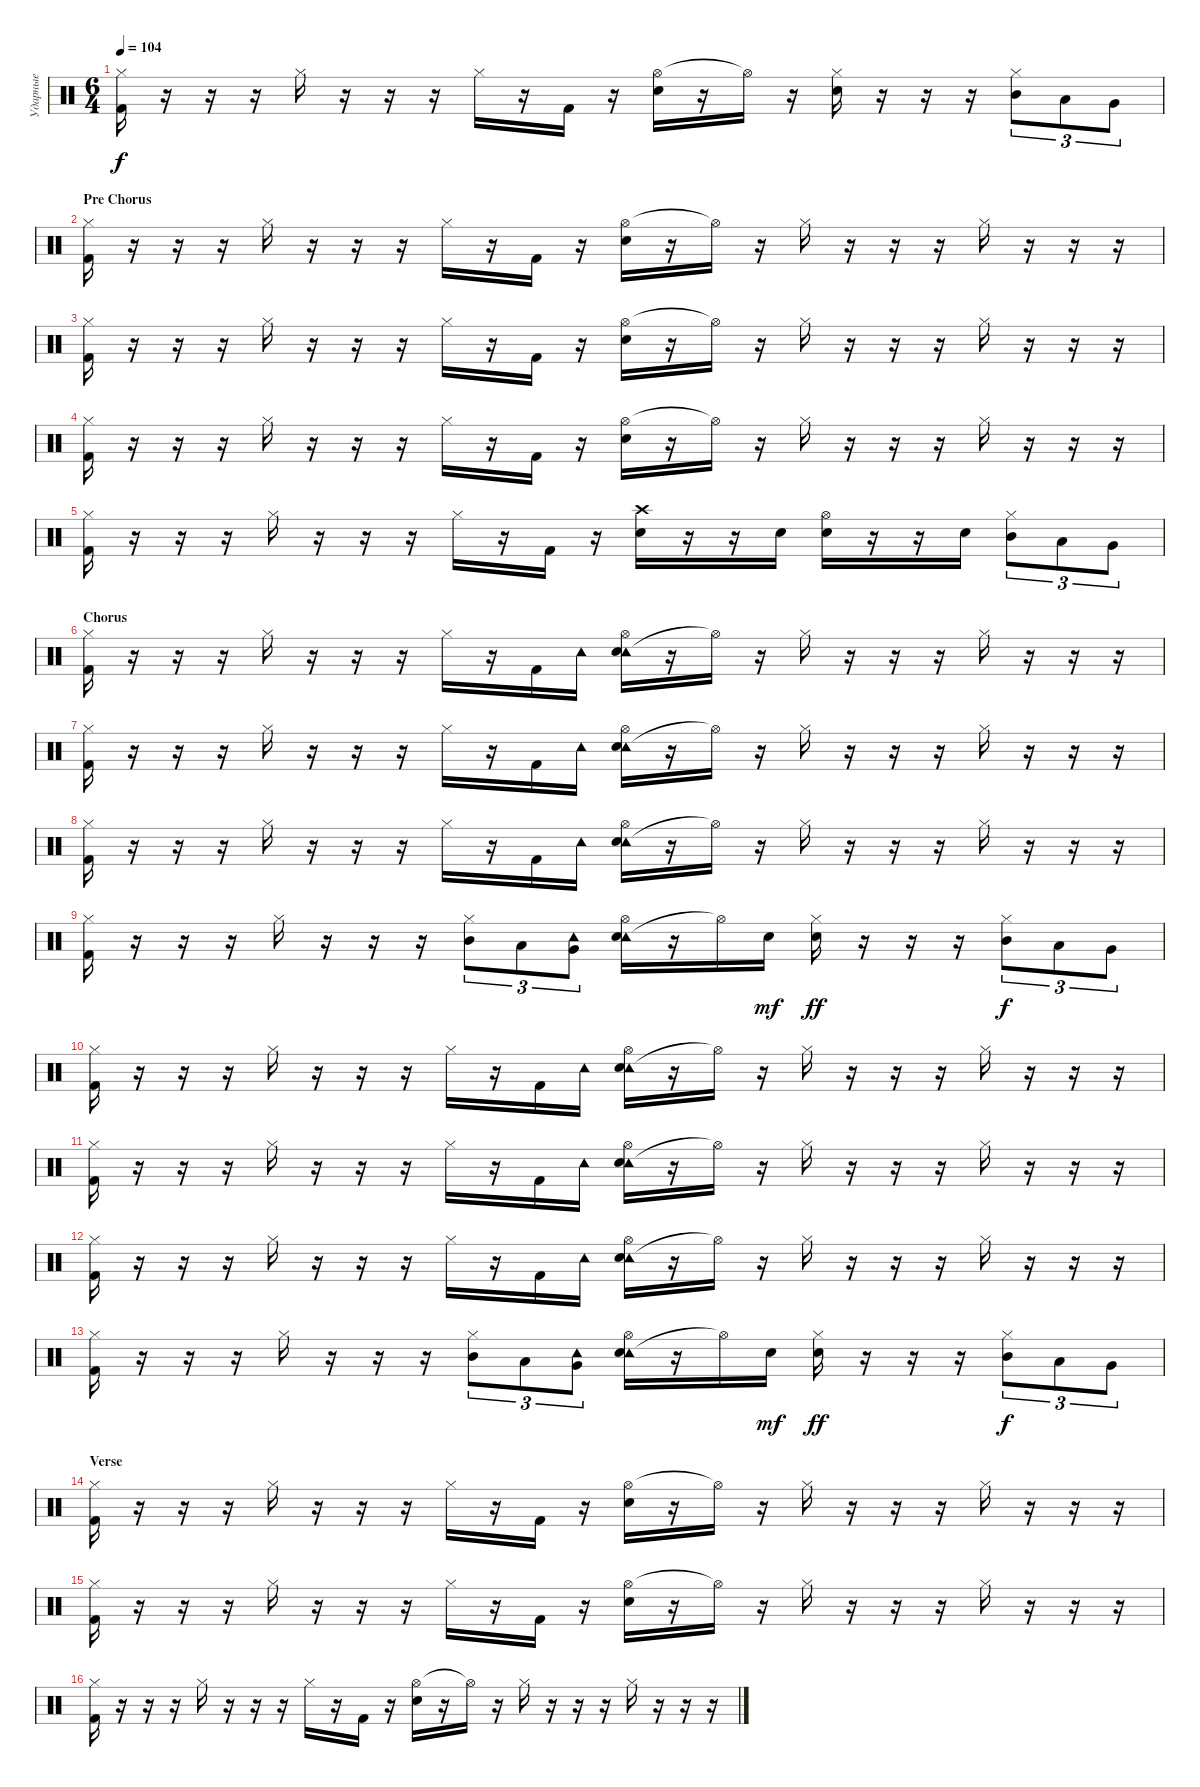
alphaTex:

\track ("Ударные" "Ударные") {instrument percussion}
\staff {score}
\articulation defaults
\ts (6 4)
\tempo 104
\clef neutral
\ks c
("Hi-Hat (closed)" "Kick (hit) 2").16{dy f} r.16 r.16 r.16 "Hi-Hat (closed)".16 r.16 r.16 r.16 "Hi-Hat (closed)".16 r.16 "Kick (hit) 2".16 r.16 ("Hi-Hat (open)" "Electric Snare (hit)").16 r.16 "Hi-Hat (open)"{t}.16 r.16 ("Hi-Hat (closed)" "Electric Snare (hit)").16 r.16 r.16 r.16 ("Hi-Hat (closed)" "Mid Tom (hit)").8{tu (3 2)} "Low Tom (hit)".8{tu (3 2)} "Very Low Tom (hit)".8{tu (3 2)} |
\section ("" "Pre Chorus")
("Hi-Hat (closed)" "Kick (hit) 2").16 r.16 r.16 r.16 "Hi-Hat (closed)".16 r.16 r.16 r.16 "Hi-Hat (closed)".16 r.16 "Kick (hit) 2".16 r.16 ("Hi-Hat (open)" "Electric Snare (hit)").16 r.16 "Hi-Hat (open)"{t}.16 r.16 "Hi-Hat (closed)".16 r.16 r.16 r.16 "Hi-Hat (closed)".16 r.16 r.16 r.16 |
("Hi-Hat (closed)" "Kick (hit) 2").16 r.16 r.16 r.16 "Hi-Hat (closed)".16 r.16 r.16 r.16 "Hi-Hat (closed)".16 r.16 "Kick (hit) 2".16 r.16 ("Hi-Hat (open)" "Electric Snare (hit)").16 r.16 "Hi-Hat (open)"{t}.16 r.16 "Hi-Hat (closed)".16 r.16 r.16 r.16 "Hi-Hat (closed)".16 r.16 r.16 r.16 |
("Hi-Hat (closed)" "Kick (hit) 2").16 r.16 r.16 r.16 "Hi-Hat (closed)".16 r.16 r.16 r.16 "Hi-Hat (closed)".16 r.16 "Kick (hit) 2".16 r.16 ("Hi-Hat (open)" "Electric Snare (hit)").16 r.16 "Hi-Hat (open)"{t}.16 r.16 "Hi-Hat (closed)".16 r.16 r.16 r.16 "Hi-Hat (closed)".16 r.16 r.16 r.16 |
("Hi-Hat (closed)" "Kick (hit) 2").16 r.16 r.16 r.16 "Hi-Hat (closed)".16 r.16 r.16 r.16 "Hi-Hat (closed)".16 r.16 "Kick (hit) 2".16 r.16 ("Crash high (hit)" "Electric Snare (hit)").16 r.16 r.16 "Electric Snare (hit)".16 ("Hi-Hat (open)" "Electric Snare (hit)").16 r.16 r.16 "Electric Snare (hit)".16 ("Hi-Hat (closed)" "Mid Tom (hit)").8{tu (3 2)} "Low Tom (hit)".8{tu (3 2)} "Very Low Tom (hit)".8{tu (3 2)} |
\section ("" "Chorus")
("Hi-Hat (closed)" "Kick (hit) 2").16 r.16 r.16 r.16 "Hi-Hat (closed)".16 r.16 r.16 r.16 "Hi-Hat (closed)".16 r.16 "Kick (hit) 2".16 "Tambourine (hit)".16 ("Tambourine (hit)" "Hi-Hat (open)" "Electric Snare (hit)").16 r.16 "Hi-Hat (open)"{t}.16 r.16 "Hi-Hat (closed)".16 r.16 r.16 r.16 "Hi-Hat (closed)".16 r.16 r.16 r.16 |
("Hi-Hat (closed)" "Kick (hit) 2").16 r.16 r.16 r.16 "Hi-Hat (closed)".16 r.16 r.16 r.16 "Hi-Hat (closed)".16 r.16 "Kick (hit) 2".16 "Tambourine (hit)".16 ("Tambourine (hit)" "Hi-Hat (open)" "Electric Snare (hit)").16 r.16 "Hi-Hat (open)"{t}.16 r.16 "Hi-Hat (closed)".16 r.16 r.16 r.16 "Hi-Hat (closed)".16 r.16 r.16 r.16 |
("Hi-Hat (closed)" "Kick (hit) 2").16 r.16 r.16 r.16 "Hi-Hat (closed)".16 r.16 r.16 r.16 "Hi-Hat (closed)".16 r.16 "Kick (hit) 2".16 "Tambourine (hit)".16 ("Tambourine (hit)" "Hi-Hat (open)" "Electric Snare (hit)").16 r.16 "Hi-Hat (open)"{t}.16 r.16 "Hi-Hat (closed)".16 r.16 r.16 r.16 "Hi-Hat (closed)".16 r.16 r.16 r.16 |
("Hi-Hat (closed)" "Kick (hit) 2").16 r.16 r.16 r.16 "Hi-Hat (closed)".16 r.16 r.16 r.16 ("Hi-Hat (closed)" "Mid Tom (hit)").8{tu (3 2)} "Low Tom (hit)".8{tu (3 2)} ("Tambourine (hit)" "Very Low Tom (hit)").8{tu (3 2)} ("Tambourine (hit)" "Hi-Hat (open)" "Electric Snare (hit)").16 r.16 "Hi-Hat (open)"{t}.16 "Electric Snare (hit)".16{dy mf} ("Hi-Hat (closed)" "Electric Snare (hit)").16{dy ff} r.16 r.16 r.16 ("Hi-Hat (closed)" "Mid Tom (hit)").8{tu (3 2) dy f} "Low Tom (hit)".8{tu (3 2)} "Very Low Tom (hit)".8{tu (3 2)} |
("Hi-Hat (closed)" "Kick (hit) 2").16 r.16 r.16 r.16 "Hi-Hat (closed)".16 r.16 r.16 r.16 "Hi-Hat (closed)".16 r.16 "Kick (hit) 2".16 "Tambourine (hit)".16 ("Tambourine (hit)" "Hi-Hat (open)" "Electric Snare (hit)").16 r.16 "Hi-Hat (open)"{t}.16 r.16 "Hi-Hat (closed)".16 r.16 r.16 r.16 "Hi-Hat (closed)".16 r.16 r.16 r.16 |
("Hi-Hat (closed)" "Kick (hit) 2").16 r.16 r.16 r.16 "Hi-Hat (closed)".16 r.16 r.16 r.16 "Hi-Hat (closed)".16 r.16 "Kick (hit) 2".16 "Tambourine (hit)".16 ("Tambourine (hit)" "Hi-Hat (open)" "Electric Snare (hit)").16 r.16 "Hi-Hat (open)"{t}.16 r.16 "Hi-Hat (closed)".16 r.16 r.16 r.16 "Hi-Hat (closed)".16 r.16 r.16 r.16 |
("Hi-Hat (closed)" "Kick (hit) 2").16 r.16 r.16 r.16 "Hi-Hat (closed)".16 r.16 r.16 r.16 "Hi-Hat (closed)".16 r.16 "Kick (hit) 2".16 "Tambourine (hit)".16 ("Tambourine (hit)" "Hi-Hat (open)" "Electric Snare (hit)").16 r.16 "Hi-Hat (open)"{t}.16 r.16 "Hi-Hat (closed)".16 r.16 r.16 r.16 "Hi-Hat (closed)".16 r.16 r.16 r.16 |
("Hi-Hat (closed)" "Kick (hit) 2").16 r.16 r.16 r.16 "Hi-Hat (closed)".16 r.16 r.16 r.16 ("Hi-Hat (closed)" "Mid Tom (hit)").8{tu (3 2)} "Low Tom (hit)".8{tu (3 2)} ("Tambourine (hit)" "Very Low Tom (hit)").8{tu (3 2)} ("Tambourine (hit)" "Hi-Hat (open)" "Electric Snare (hit)").16 r.16 "Hi-Hat (open)"{t}.16 "Electric Snare (hit)".16{dy mf} ("Hi-Hat (closed)" "Electric Snare (hit)").16{dy ff} r.16 r.16 r.16 ("Hi-Hat (closed)" "Mid Tom (hit)").8{tu (3 2) dy f} "Low Tom (hit)".8{tu (3 2)} "Very Low Tom (hit)".8{tu (3 2)} |
\section ("" "Verse")
("Hi-Hat (closed)" "Kick (hit) 2").16 r.16 r.16 r.16 "Hi-Hat (closed)".16 r.16 r.16 r.16 "Hi-Hat (closed)".16 r.16 "Kick (hit) 2".16 r.16 ("Hi-Hat (open)" "Electric Snare (hit)").16 r.16 "Hi-Hat (open)"{t}.16 r.16 "Hi-Hat (closed)".16 r.16 r.16 r.16 "Hi-Hat (closed)".16 r.16 r.16 r.16 |
("Hi-Hat (closed)" "Kick (hit) 2").16 r.16 r.16 r.16 "Hi-Hat (closed)".16 r.16 r.16 r.16 "Hi-Hat (closed)".16 r.16 "Kick (hit) 2".16 r.16 ("Hi-Hat (open)" "Electric Snare (hit)").16 r.16 "Hi-Hat (open)"{t}.16 r.16 "Hi-Hat (closed)".16 r.16 r.16 r.16 "Hi-Hat (closed)".16 r.16 r.16 r.16 |
("Hi-Hat (closed)" "Kick (hit) 2").16 r.16 r.16 r.16 "Hi-Hat (closed)".16 r.16 r.16 r.16 "Hi-Hat (closed)".16 r.16 "Kick (hit) 2".16 r.16 ("Hi-Hat (open)" "Electric Snare (hit)").16 r.16 "Hi-Hat (open)"{t}.16 r.16 "Hi-Hat (closed)".16 r.16 r.16 r.16 "Hi-Hat (closed)".16 r.16 r.16 r.16
